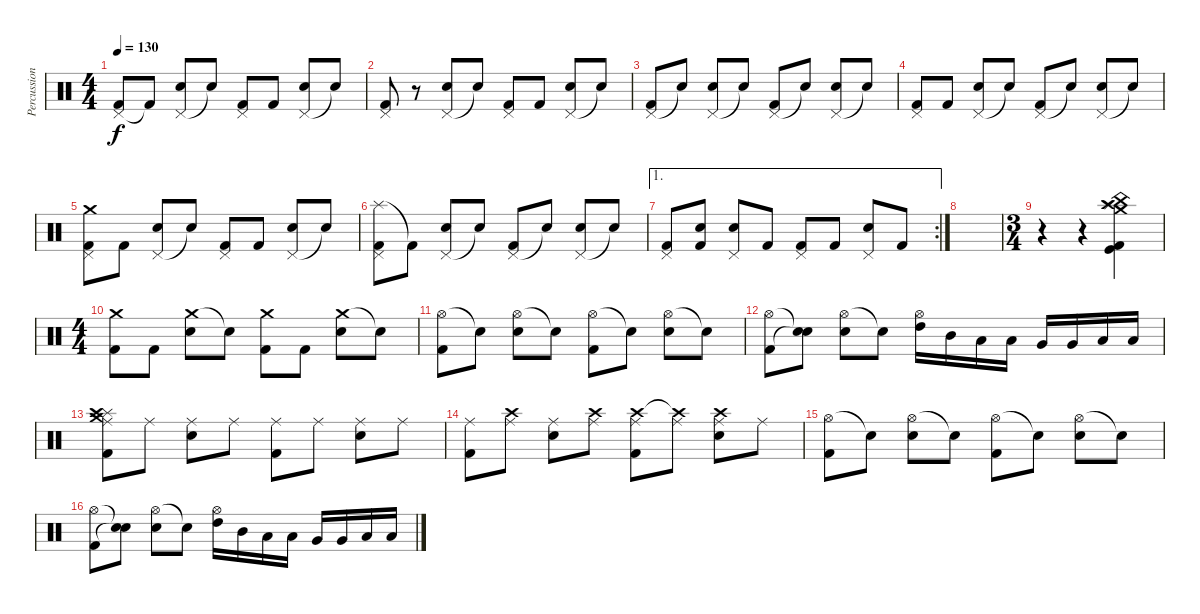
\track ("Percussion" "Percussion") {instrument percussion}
\staff {score}
\articulation defaults
\ts (4 4)
\tempo 130
\clef neutral
\ks c
("Pedal Hi-Hat (hit)" "Kick (hit) 2").8{dy f} "Kick (hit) 2"{t}.8 ("Pedal Hi-Hat (hit)" "Electric Snare (hit)").8 "Snare (hit)"{t}.8 ("Pedal Hi-Hat (hit)" "Kick (hit) 2").8 "Kick (hit) 2".8 ("Pedal Hi-Hat (hit)" "Electric Snare (hit)").8 "Snare (hit)"{t}.8 |
("Pedal Hi-Hat (hit)" "Kick (hit) 2").8 r.8 ("Pedal Hi-Hat (hit)" "Electric Snare (hit)").8 "Snare (hit)"{t}.8 ("Pedal Hi-Hat (hit)" "Kick (hit) 2").8 "Kick (hit) 2".8 ("Pedal Hi-Hat (hit)" "Electric Snare (hit)").8 "Snare (hit)"{t}.8 |
("Pedal Hi-Hat (hit)" "Kick (hit) 2").8 "Snare (hit)"{t}.8 ("Pedal Hi-Hat (hit)" "Electric Snare (hit)").8 "Snare (hit)"{t}.8 ("Pedal Hi-Hat (hit)" "Kick (hit) 2").8 "Snare (hit)"{t}.8 ("Pedal Hi-Hat (hit)" "Electric Snare (hit)").8 "Snare (hit)"{t}.8 |
("Pedal Hi-Hat (hit)" "Kick (hit) 2").8 "Kick (hit) 2".8 ("Pedal Hi-Hat (hit)" "Electric Snare (hit)").8 "Snare (hit)"{t}.8 ("Pedal Hi-Hat (hit)" "Kick (hit) 2").8 "Snare (hit)"{t}.8 ("Pedal Hi-Hat (hit)" "Electric Snare (hit)").8 "Snare (hit)"{t}.8 |
("Crash medium (hit)" "Pedal Hi-Hat (hit)" "Kick (hit) 2").8 "Kick (hit) 2".8 ("Pedal Hi-Hat (hit)" "Electric Snare (hit)").8 "Snare (hit)"{t}.8 ("Pedal Hi-Hat (hit)" "Kick (hit) 2").8 "Kick (hit) 2".8 ("Pedal Hi-Hat (hit)" "Electric Snare (hit)").8 "Snare (hit)"{t}.8 |
("Splash (hit)" "Pedal Hi-Hat (hit)" "Kick (hit) 2").8 "Kick (hit) 2"{t}.8 ("Pedal Hi-Hat (hit)" "Electric Snare (hit)").8 "Snare (hit)"{t}.8 ("Pedal Hi-Hat (hit)" "Kick (hit) 2").8 "Snare (hit)"{t}.8 ("Pedal Hi-Hat (hit)" "Electric Snare (hit)").8 "Snare (hit)"{t}.8 |
\ae 1
\rc 2
("Pedal Hi-Hat (hit)" "Kick (hit) 2").8 ("Snare (hit)" "Kick (hit) 2").8 ("Pedal Hi-Hat (hit)" "Electric Snare (hit)").8 "Kick (hit) 2".8 ("Pedal Hi-Hat (hit)" "Kick (hit) 2").8 "Kick (hit) 2".8 ("Pedal Hi-Hat (hit)" "Electric Snare (hit)").8 "Kick (hit) 2".8 |
|
\ts (3 4)
r.4 r.4 ("Kick (hit)" "China (hit)" "Splash (hit)" "Crash high (hit)" "Crash medium (hit)" "Kick (hit) 2").4 |
\ts (4 4)
("Crash medium (hit)" "Kick (hit) 2").8 "Kick (hit) 2".8 ("Crash medium (hit)" "Electric Snare (hit)").8 "Snare (hit)"{t}.8 ("Crash medium (hit)" "Kick (hit) 2").8 "Kick (hit) 2".8 ("Crash medium (hit)" "Electric Snare (hit)").8 "Snare (hit)"{t}.8 |
("Hi-Hat (open)" "Kick (hit) 2").8 "Snare (hit)"{t}.8 ("Hi-Hat (open)" "Electric Snare (hit)").8 "Snare (hit)"{t}.8 ("Hi-Hat (open)" "Kick (hit) 2").8 "Snare (hit)"{t}.8 ("Hi-Hat (open)" "Electric Snare (hit)").8 "Snare (hit)"{t}.8 |
("Hi-Hat (open)" "Kick (hit) 2").8 ("Snare (hit)"{t} "Snare (hit)"{t}).8 ("Hi-Hat (open)" "Electric Snare (hit)").8 "Snare (hit)"{t}.8 ("Hi-Hat (open)" "High Tom (hit)").16 "Mid Tom (hit)".16 "Low Tom (hit)".16 "Low Tom (hit)".16 "Very Low Tom (hit)".16 "Very Low Tom (hit)".16 "Low Floor Tom (hit)".16 "Low Floor Tom (hit)".16 |
("Splash (hit)" "Crash high (hit)" "Crash medium (hit)" "Ride (middle)" "Kick (hit) 2").8 "Ride (middle)".8 ("Ride (middle)" "Electric Snare (hit)").8 "Ride (middle)".8 ("Ride (middle)" "Kick (hit) 2").8 "Ride (middle)".8 ("Ride (middle)" "Electric Snare (hit)").8 "Ride (middle)".8 |
("Ride (middle)" "Kick (hit) 2").8 ("Crash high (hit)" "Ride (middle)").8 ("Ride (middle)" "Electric Snare (hit)").8 ("Crash high (hit)" "Ride (middle)").8 ("Crash high (hit)" "Ride (middle)" "Kick (hit) 2").8 ("Crash high (hit)"{t} "Ride (middle)").8 ("Crash high (hit)" "Ride (middle)" "Electric Snare (hit)").8 "Ride (middle)".8 |
("Hi-Hat (open)" "Kick (hit) 2").8 "Snare (hit)"{t}.8 ("Hi-Hat (open)" "Electric Snare (hit)").8 "Snare (hit)"{t}.8 ("Hi-Hat (open)" "Kick (hit) 2").8 "Snare (hit)"{t}.8 ("Hi-Hat (open)" "Electric Snare (hit)").8 "Snare (hit)"{t}.8 |
("Hi-Hat (open)" "Kick (hit) 2").8 ("Snare (hit)"{t} "Snare (hit)"{t}).8 ("Hi-Hat (open)" "Electric Snare (hit)").8 "Snare (hit)"{t}.8 ("Hi-Hat (open)" "High Tom (hit)").16 "Mid Tom (hit)".16 "Low Tom (hit)".16 "Low Tom (hit)".16 "Very Low Tom (hit)".16 "Very Low Tom (hit)".16 "Low Floor Tom (hit)".16 "Low Floor Tom (hit)".16
